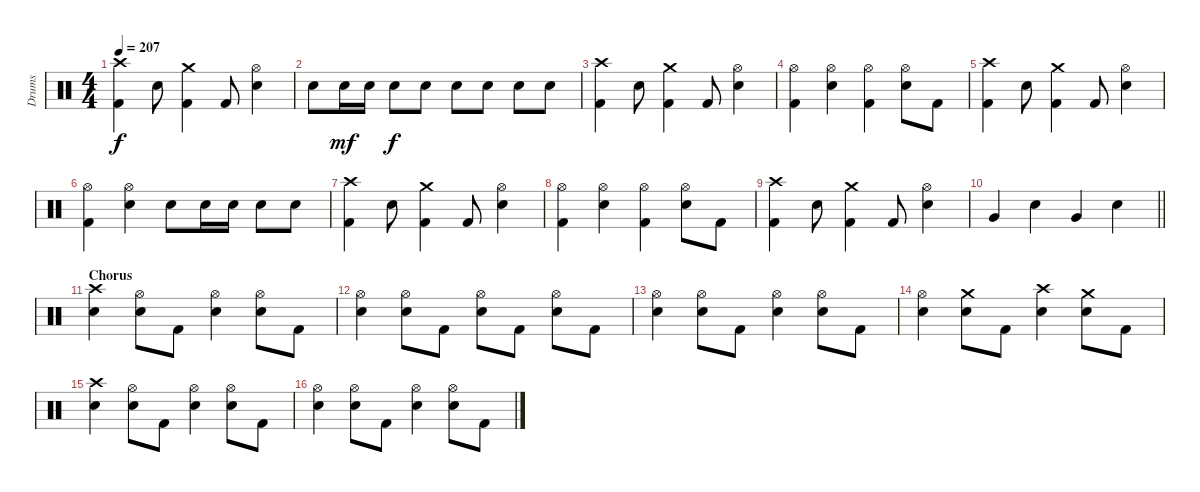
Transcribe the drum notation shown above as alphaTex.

\track ("Drums" "Drums") {instrument percussion}
\staff {score}
\articulation defaults
\ts (4 4)
\tempo 207
\clef neutral
\ks c
("Crash high (hit)" "Kick (hit) 2").4{dy f} "Snare (hit) 2".8 ("Crash medium (hit)" "Kick (hit) 2").4 "Kick (hit) 2".8 ("Hi-Hat (open)" "Snare (hit) 2").4 |
"Snare (hit) 2".8 "Snare (hit) 2".16{dy mf} "Snare (hit) 2".16 "Snare (hit) 2".8{dy f} "Snare (hit) 2".8 "Snare (hit) 2".8 "Snare (hit) 2".8 "Snare (hit) 2".8 "Snare (hit) 2".8 |
("Crash high (hit)" "Kick (hit) 2").4 "Snare (hit) 2".8 ("Crash medium (hit)" "Kick (hit) 2").4 "Kick (hit) 2".8 ("Hi-Hat (open)" "Snare (hit) 2").4 |
("Hi-Hat (open)" "Kick (hit) 2").4 ("Hi-Hat (open)" "Snare (hit) 2").4 ("Hi-Hat (open)" "Kick (hit) 2").4 ("Hi-Hat (open)" "Snare (hit) 2").8 "Kick (hit) 2".8 |
("Crash high (hit)" "Kick (hit) 2").4 "Snare (hit) 2".8 ("Crash medium (hit)" "Kick (hit) 2").4 "Kick (hit) 2".8 ("Hi-Hat (open)" "Snare (hit) 2").4 |
("Hi-Hat (open)" "Kick (hit) 2").4 ("Hi-Hat (open)" "Snare (hit) 2").4 "Snare (hit) 2".8 "Snare (hit) 2".16 "Snare (hit) 2".16 "Snare (hit) 2".8 "Snare (hit) 2".8 |
("Crash high (hit)" "Kick (hit) 2").4 "Snare (hit) 2".8 ("Crash medium (hit)" "Kick (hit) 2").4 "Kick (hit) 2".8 ("Hi-Hat (open)" "Snare (hit) 2").4 |
("Hi-Hat (open)" "Kick (hit) 2").4 ("Hi-Hat (open)" "Snare (hit) 2").4 ("Hi-Hat (open)" "Kick (hit) 2").4 ("Hi-Hat (open)" "Snare (hit) 2").8 "Kick (hit) 2".8 |
("Crash high (hit)" "Kick (hit) 2").4 "Snare (hit) 2".8 ("Crash medium (hit)" "Kick (hit) 2").4 "Kick (hit) 2".8 ("Hi-Hat (open)" "Snare (hit) 2").4 |
\barLineRight lightlight "Very Low Tom (hit)".4 "Snare (hit) 2".4 "Very Low Tom (hit)".4 "Snare (hit) 2".4
|
\section ("" "Chorus")
("Crash high (hit)" "Snare (hit) 2").4 ("Hi-Hat (open)" "Snare (hit) 2").8 "Kick (hit) 2".8 ("Hi-Hat (open)" "Snare (hit) 2").4 ("Hi-Hat (open)" "Snare (hit) 2").8 "Kick (hit) 2".8 |
("Hi-Hat (open)" "Snare (hit) 2").4 ("Hi-Hat (open)" "Snare (hit) 2").8 "Kick (hit) 2".8 ("Hi-Hat (open)" "Snare (hit) 2").8 "Kick (hit) 2".8 ("Hi-Hat (open)" "Snare (hit) 2").8 "Kick (hit) 2".8 |
("Hi-Hat (open)" "Snare (hit) 2").4 ("Hi-Hat (open)" "Snare (hit) 2").8 "Kick (hit) 2".8 ("Hi-Hat (open)" "Snare (hit) 2").4 ("Hi-Hat (open)" "Snare (hit) 2").8 "Kick (hit) 2".8 |
("Hi-Hat (open)" "Snare (hit) 2").4 ("Crash medium (hit)" "Snare (hit) 2").8 "Kick (hit) 2".8 ("Crash high (hit)" "Snare (hit) 2").4 ("Crash medium (hit)" "Snare (hit) 2").8 "Kick (hit) 2".8 |
("Crash high (hit)" "Snare (hit) 2").4 ("Hi-Hat (open)" "Snare (hit) 2").8 "Kick (hit) 2".8 ("Hi-Hat (open)" "Snare (hit) 2").4 ("Hi-Hat (open)" "Snare (hit) 2").8 "Kick (hit) 2".8 |
("Hi-Hat (open)" "Snare (hit) 2").4 ("Hi-Hat (open)" "Snare (hit) 2").8 "Kick (hit) 2".8 ("Hi-Hat (open)" "Snare (hit) 2").4 ("Hi-Hat (open)" "Snare (hit) 2").8 "Kick (hit) 2".8
